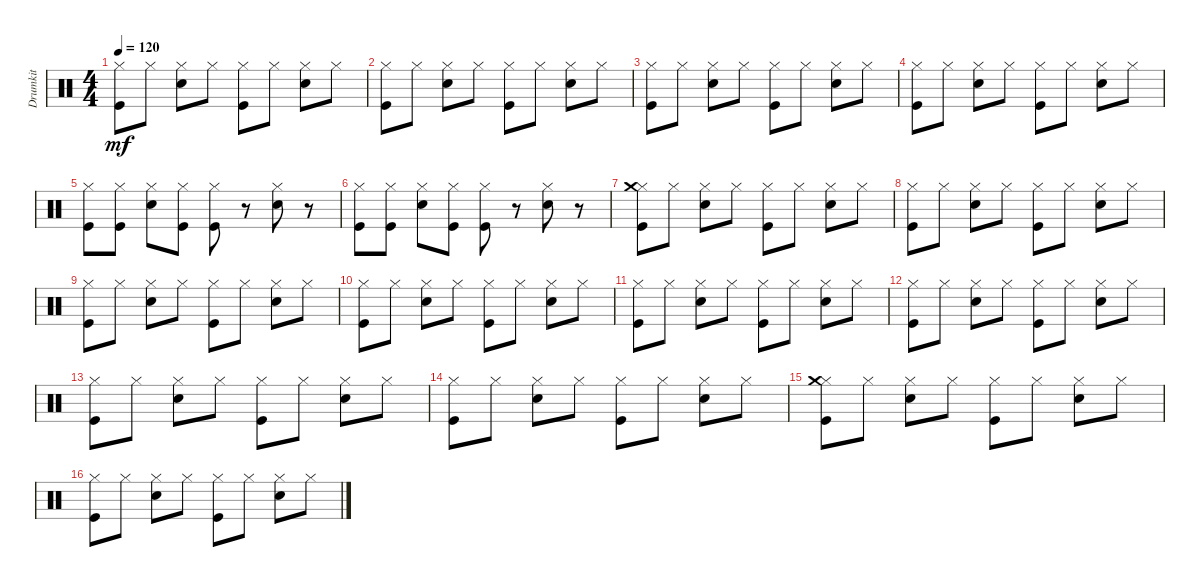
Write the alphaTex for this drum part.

\track ("Drumkit" "Drumkit") {instrument percussion}
\staff {score}
\articulation defaults
\ts (4 4)
\tempo 120
\clef neutral
\ks c
("Hi-Hat (closed)" "Kick (hit)").8{dy mf} "Hi-Hat (closed)".8 ("Hi-Hat (closed)" "Snare (hit) 2").8 "Hi-Hat (closed)".8 ("Hi-Hat (closed)" "Kick (hit)").8 "Hi-Hat (closed)".8 ("Hi-Hat (closed)" "Snare (hit) 2").8 "Hi-Hat (closed)".8 |
("Hi-Hat (closed)" "Kick (hit)").8 "Hi-Hat (closed)".8 ("Hi-Hat (closed)" "Snare (hit) 2").8 "Hi-Hat (closed)".8 ("Hi-Hat (closed)" "Kick (hit)").8 "Hi-Hat (closed)".8 ("Hi-Hat (closed)" "Snare (hit) 2").8 "Hi-Hat (closed)".8 |
("Hi-Hat (closed)" "Kick (hit)").8 "Hi-Hat (closed)".8 ("Hi-Hat (closed)" "Snare (hit) 2").8 "Hi-Hat (closed)".8 ("Hi-Hat (closed)" "Kick (hit)").8 "Hi-Hat (closed)".8 ("Hi-Hat (closed)" "Snare (hit) 2").8 "Hi-Hat (closed)".8 |
("Hi-Hat (closed)" "Kick (hit)").8 "Hi-Hat (closed)".8 ("Hi-Hat (closed)" "Snare (hit) 2").8 "Hi-Hat (closed)".8 ("Hi-Hat (closed)" "Kick (hit)").8 "Hi-Hat (closed)".8 ("Hi-Hat (closed)" "Snare (hit) 2").8 "Hi-Hat (closed)".8 |
("Hi-Hat (closed)" "Kick (hit)").8 ("Hi-Hat (closed)" "Kick (hit)").8 ("Hi-Hat (closed)" "Snare (hit) 2").8 ("Hi-Hat (closed)" "Kick (hit)").8 ("Hi-Hat (closed)" "Kick (hit)").8 r.8 ("Hi-Hat (closed)" "Snare (hit) 2").8 r.8 |
("Hi-Hat (closed)" "Kick (hit)").8 ("Hi-Hat (closed)" "Kick (hit)").8 ("Hi-Hat (closed)" "Snare (hit) 2").8 ("Hi-Hat (closed)" "Kick (hit)").8 ("Hi-Hat (closed)" "Kick (hit)").8 r.8 ("Hi-Hat (closed)" "Snare (hit) 2").8 r.8 |
("Hi-Hat (closed)" "Kick (hit)" "Crash medium (hit)").8 "Hi-Hat (closed)".8 ("Hi-Hat (closed)" "Snare (hit) 2").8 "Hi-Hat (closed)".8 ("Hi-Hat (closed)" "Kick (hit)").8 "Hi-Hat (closed)".8 ("Hi-Hat (closed)" "Snare (hit) 2").8 "Hi-Hat (closed)".8 |
("Hi-Hat (closed)" "Kick (hit)").8 "Hi-Hat (closed)".8 ("Hi-Hat (closed)" "Snare (hit) 2").8 "Hi-Hat (closed)".8 ("Hi-Hat (closed)" "Kick (hit)").8 "Hi-Hat (closed)".8 ("Hi-Hat (closed)" "Snare (hit) 2").8 "Hi-Hat (closed)".8 |
("Hi-Hat (closed)" "Kick (hit)").8 "Hi-Hat (closed)".8 ("Hi-Hat (closed)" "Snare (hit) 2").8 "Hi-Hat (closed)".8 ("Hi-Hat (closed)" "Kick (hit)").8 "Hi-Hat (closed)".8 ("Hi-Hat (closed)" "Snare (hit) 2").8 "Hi-Hat (closed)".8 |
("Hi-Hat (closed)" "Kick (hit)").8 "Hi-Hat (closed)".8 ("Hi-Hat (closed)" "Snare (hit) 2").8 "Hi-Hat (closed)".8 ("Hi-Hat (closed)" "Kick (hit)").8 "Hi-Hat (closed)".8 ("Hi-Hat (closed)" "Snare (hit) 2").8 "Hi-Hat (closed)".8 |
("Hi-Hat (closed)" "Kick (hit)").8 "Hi-Hat (closed)".8 ("Hi-Hat (closed)" "Snare (hit) 2").8 "Hi-Hat (closed)".8 ("Hi-Hat (closed)" "Kick (hit)").8 "Hi-Hat (closed)".8 ("Hi-Hat (closed)" "Snare (hit) 2").8 "Hi-Hat (closed)".8 |
("Hi-Hat (closed)" "Kick (hit)").8 "Hi-Hat (closed)".8 ("Hi-Hat (closed)" "Snare (hit) 2").8 "Hi-Hat (closed)".8 ("Hi-Hat (closed)" "Kick (hit)").8 "Hi-Hat (closed)".8 ("Hi-Hat (closed)" "Snare (hit) 2").8 "Hi-Hat (closed)".8 |
("Hi-Hat (closed)" "Kick (hit)").8 "Hi-Hat (closed)".8 ("Hi-Hat (closed)" "Snare (hit) 2").8 "Hi-Hat (closed)".8 ("Hi-Hat (closed)" "Kick (hit)").8 "Hi-Hat (closed)".8 ("Hi-Hat (closed)" "Snare (hit) 2").8 "Hi-Hat (closed)".8 |
("Hi-Hat (closed)" "Kick (hit)").8 "Hi-Hat (closed)".8 ("Hi-Hat (closed)" "Snare (hit) 2").8 "Hi-Hat (closed)".8 ("Hi-Hat (closed)" "Kick (hit)").8 "Hi-Hat (closed)".8 ("Hi-Hat (closed)" "Snare (hit) 2").8 "Hi-Hat (closed)".8 |
("Hi-Hat (closed)" "Kick (hit)" "Crash medium (hit)").8 "Hi-Hat (closed)".8 ("Hi-Hat (closed)" "Snare (hit) 2").8 "Hi-Hat (closed)".8 ("Hi-Hat (closed)" "Kick (hit)").8 "Hi-Hat (closed)".8 ("Hi-Hat (closed)" "Snare (hit) 2").8 "Hi-Hat (closed)".8 |
("Hi-Hat (closed)" "Kick (hit)").8 "Hi-Hat (closed)".8 ("Hi-Hat (closed)" "Snare (hit) 2").8 "Hi-Hat (closed)".8 ("Hi-Hat (closed)" "Kick (hit)").8 "Hi-Hat (closed)".8 ("Hi-Hat (closed)" "Snare (hit) 2").8 "Hi-Hat (closed)".8
